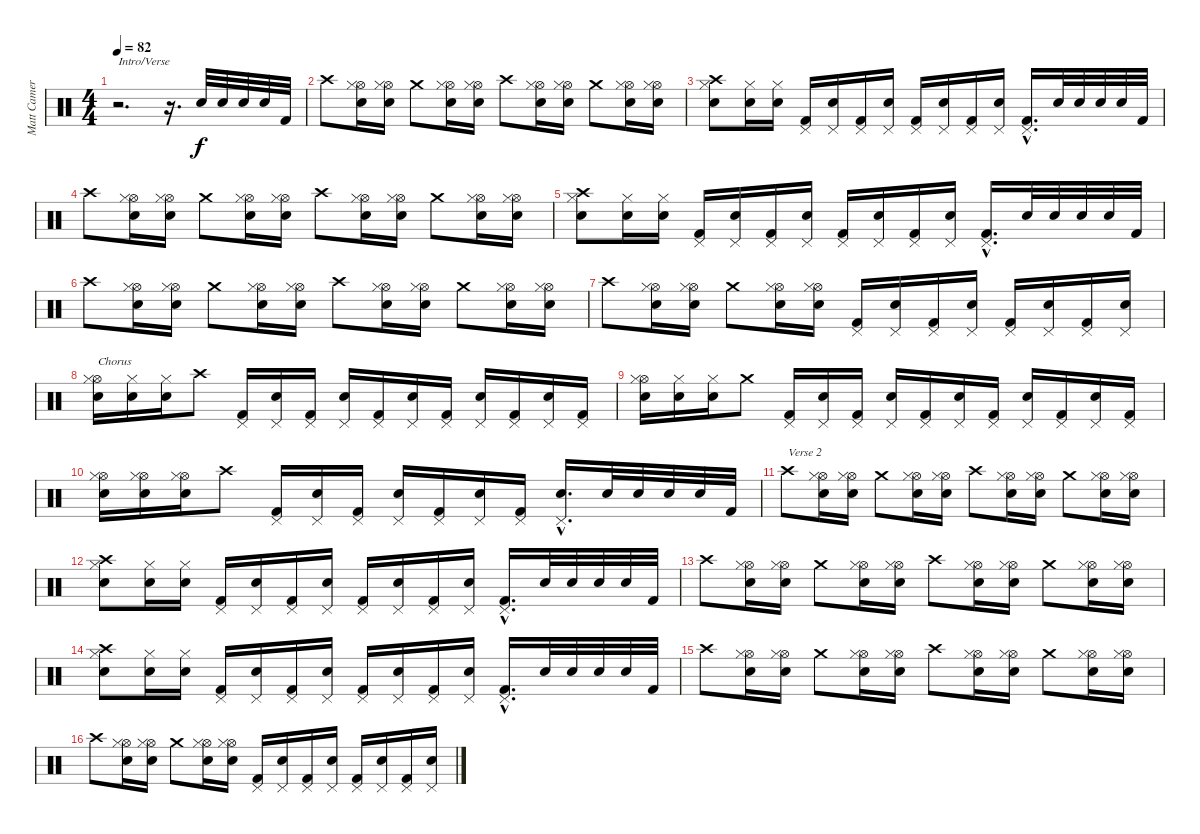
\track ("Matt Cameron" "Matt Camer") {instrument percussion}
\staff {score}
\articulation defaults
\ts (4 4)
\tempo 82
\clef neutral
\ks c
r.2{d txt "Intro/Verse" dy f} r.16{d} "Snare (hit) 2".32 "Snare (hit) 2".32 "Snare (hit) 2".32 "Snare (hit) 2".32 "Kick (hit) 2".32 |
"Crash high (hit)".8 ("Hi-Hat (open)" "Hi-Hat (closed)" "Snare (hit) 2").16 ("Hi-Hat (open)" "Hi-Hat (closed)" "Snare (hit) 2").16 "Crash medium (hit)".8 ("Hi-Hat (open)" "Hi-Hat (closed)" "Snare (hit) 2").16 ("Hi-Hat (open)" "Hi-Hat (closed)" "Snare (hit) 2").16 "Crash high (hit)".8 ("Hi-Hat (open)" "Hi-Hat (closed)" "Snare (hit) 2").16 ("Hi-Hat (open)" "Hi-Hat (closed)" "Snare (hit) 2").16 "Crash medium (hit)".8 ("Hi-Hat (open)" "Hi-Hat (closed)" "Snare (hit) 2").16 ("Hi-Hat (open)" "Hi-Hat (closed)" "Snare (hit) 2").16 |
("Crash high (hit)" "Hi-Hat (closed)" "Snare (hit) 2").8 ("Hi-Hat (closed)" "Snare (hit) 2").16 ("Hi-Hat (closed)" "Snare (hit) 2").16 ("Pedal Hi-Hat (hit)" "Kick (hit) 2").16 ("Pedal Hi-Hat (hit)" "Snare (hit) 2").16 ("Pedal Hi-Hat (hit)" "Kick (hit) 2").16 ("Pedal Hi-Hat (hit)" "Snare (hit) 2").16 ("Pedal Hi-Hat (hit)" "Kick (hit) 2").16 ("Pedal Hi-Hat (hit)" "Snare (hit) 2").16 ("Pedal Hi-Hat (hit)" "Kick (hit) 2").16 ("Pedal Hi-Hat (hit)" "Snare (hit) 2").16 ("Pedal Hi-Hat (hit)"{hac} "Kick (hit) 2"{hac}).16{d} "Snare (hit) 2".32 "Snare (hit) 2".32 "Snare (hit) 2".32 "Snare (hit) 2".32 "Kick (hit) 2".32 |
"Crash high (hit)".8 ("Hi-Hat (open)" "Hi-Hat (closed)" "Snare (hit) 2").16 ("Hi-Hat (open)" "Hi-Hat (closed)" "Snare (hit) 2").16 "Crash medium (hit)".8 ("Hi-Hat (open)" "Hi-Hat (closed)" "Snare (hit) 2").16 ("Hi-Hat (open)" "Hi-Hat (closed)" "Snare (hit) 2").16 "Crash high (hit)".8 ("Hi-Hat (open)" "Hi-Hat (closed)" "Snare (hit) 2").16 ("Hi-Hat (open)" "Hi-Hat (closed)" "Snare (hit) 2").16 "Crash medium (hit)".8 ("Hi-Hat (open)" "Hi-Hat (closed)" "Snare (hit) 2").16 ("Hi-Hat (open)" "Hi-Hat (closed)" "Snare (hit) 2").16 |
("Crash high (hit)" "Hi-Hat (closed)" "Snare (hit) 2").8 ("Hi-Hat (closed)" "Snare (hit) 2").16 ("Hi-Hat (closed)" "Snare (hit) 2").16 ("Pedal Hi-Hat (hit)" "Kick (hit) 2").16 ("Pedal Hi-Hat (hit)" "Snare (hit) 2").16 ("Pedal Hi-Hat (hit)" "Kick (hit) 2").16 ("Pedal Hi-Hat (hit)" "Snare (hit) 2").16 ("Pedal Hi-Hat (hit)" "Kick (hit) 2").16 ("Pedal Hi-Hat (hit)" "Snare (hit) 2").16 ("Pedal Hi-Hat (hit)" "Kick (hit) 2").16 ("Pedal Hi-Hat (hit)" "Snare (hit) 2").16 ("Pedal Hi-Hat (hit)"{hac} "Kick (hit) 2"{hac}).16{d} "Snare (hit) 2".32 "Snare (hit) 2".32 "Snare (hit) 2".32 "Snare (hit) 2".32 "Kick (hit) 2".32 |
"Crash high (hit)".8 ("Hi-Hat (open)" "Hi-Hat (closed)" "Snare (hit) 2").16 ("Hi-Hat (open)" "Hi-Hat (closed)" "Snare (hit) 2").16 "Crash medium (hit)".8 ("Hi-Hat (open)" "Hi-Hat (closed)" "Snare (hit) 2").16 ("Hi-Hat (open)" "Hi-Hat (closed)" "Snare (hit) 2").16 "Crash high (hit)".8 ("Hi-Hat (open)" "Hi-Hat (closed)" "Snare (hit) 2").16 ("Hi-Hat (open)" "Hi-Hat (closed)" "Snare (hit) 2").16 "Crash medium (hit)".8 ("Hi-Hat (open)" "Hi-Hat (closed)" "Snare (hit) 2").16 ("Hi-Hat (open)" "Hi-Hat (closed)" "Snare (hit) 2").16 |
"Crash high (hit)".8 ("Hi-Hat (open)" "Hi-Hat (closed)" "Snare (hit) 2").16 ("Hi-Hat (open)" "Hi-Hat (closed)" "Snare (hit) 2").16 "Crash medium (hit)".8 ("Hi-Hat (open)" "Hi-Hat (closed)" "Snare (hit) 2").16 ("Hi-Hat (open)" "Hi-Hat (closed)" "Snare (hit) 2").16 ("Pedal Hi-Hat (hit)" "Kick (hit) 2").16 ("Pedal Hi-Hat (hit)" "Snare (hit) 2").16 ("Pedal Hi-Hat (hit)" "Kick (hit) 2").16 ("Pedal Hi-Hat (hit)" "Snare (hit) 2").16 ("Pedal Hi-Hat (hit)" "Kick (hit) 2").16 ("Pedal Hi-Hat (hit)" "Snare (hit) 2").16 ("Pedal Hi-Hat (hit)" "Kick (hit) 2").16 ("Pedal Hi-Hat (hit)" "Snare (hit) 2").16 |
("Hi-Hat (open)" "Hi-Hat (closed)" "Snare (hit) 2").16{txt "Chorus"} ("Hi-Hat (closed)" "Snare (hit) 2").16 ("Hi-Hat (closed)" "Snare (hit) 2").16 "Crash high (hit)".8 ("Pedal Hi-Hat (hit)" "Kick (hit) 2").16 ("Pedal Hi-Hat (hit)" "Snare (hit) 2").16 ("Pedal Hi-Hat (hit)" "Kick (hit) 2").16 ("Pedal Hi-Hat (hit)" "Snare (hit) 2").16 ("Pedal Hi-Hat (hit)" "Kick (hit) 2").16 ("Pedal Hi-Hat (hit)" "Snare (hit) 2").16 ("Pedal Hi-Hat (hit)" "Kick (hit) 2").16 ("Pedal Hi-Hat (hit)" "Snare (hit) 2").16 ("Pedal Hi-Hat (hit)" "Kick (hit) 2").16 ("Pedal Hi-Hat (hit)" "Snare (hit) 2").16 ("Pedal Hi-Hat (hit)" "Kick (hit) 2").16 |
("Hi-Hat (open)" "Hi-Hat (closed)" "Snare (hit) 2").16 ("Hi-Hat (closed)" "Snare (hit) 2").16 ("Hi-Hat (closed)" "Snare (hit) 2").16 "Crash medium (hit)".8 ("Pedal Hi-Hat (hit)" "Kick (hit) 2").16 ("Pedal Hi-Hat (hit)" "Snare (hit) 2").16 ("Pedal Hi-Hat (hit)" "Kick (hit) 2").16 ("Pedal Hi-Hat (hit)" "Snare (hit) 2").16 ("Pedal Hi-Hat (hit)" "Kick (hit) 2").16 ("Pedal Hi-Hat (hit)" "Snare (hit) 2").16 ("Pedal Hi-Hat (hit)" "Kick (hit) 2").16 ("Pedal Hi-Hat (hit)" "Snare (hit) 2").16 ("Pedal Hi-Hat (hit)" "Kick (hit) 2").16 ("Pedal Hi-Hat (hit)" "Snare (hit) 2").16 ("Pedal Hi-Hat (hit)" "Kick (hit) 2").16 |
("Hi-Hat (open)" "Hi-Hat (closed)" "Snare (hit) 2").16 ("Hi-Hat (open)" "Hi-Hat (closed)" "Snare (hit) 2").16 ("Hi-Hat (open)" "Hi-Hat (closed)" "Snare (hit) 2").16 "Crash high (hit)".8 ("Pedal Hi-Hat (hit)" "Kick (hit) 2").16 ("Pedal Hi-Hat (hit)" "Snare (hit) 2").16 ("Pedal Hi-Hat (hit)" "Kick (hit) 2").16 ("Pedal Hi-Hat (hit)" "Snare (hit) 2").16 ("Pedal Hi-Hat (hit)" "Kick (hit) 2").16 ("Pedal Hi-Hat (hit)" "Snare (hit) 2").16 ("Pedal Hi-Hat (hit)" "Kick (hit) 2").16 ("Pedal Hi-Hat (hit)"{hac} "Snare (hit) 2"{hac}).16{d} "Snare (hit) 2".32 "Snare (hit) 2".32 "Snare (hit) 2".32 "Snare (hit) 2".32 "Kick (hit) 2".32 |
"Crash high (hit)".8{txt "Verse 2"} ("Hi-Hat (open)" "Hi-Hat (closed)" "Snare (hit) 2").16 ("Hi-Hat (open)" "Hi-Hat (closed)" "Snare (hit) 2").16 "Crash medium (hit)".8 ("Hi-Hat (open)" "Hi-Hat (closed)" "Snare (hit) 2").16 ("Hi-Hat (open)" "Hi-Hat (closed)" "Snare (hit) 2").16 "Crash high (hit)".8 ("Hi-Hat (open)" "Hi-Hat (closed)" "Snare (hit) 2").16 ("Hi-Hat (open)" "Hi-Hat (closed)" "Snare (hit) 2").16 "Crash medium (hit)".8 ("Hi-Hat (open)" "Hi-Hat (closed)" "Snare (hit) 2").16 ("Hi-Hat (open)" "Hi-Hat (closed)" "Snare (hit) 2").16 |
("Crash high (hit)" "Hi-Hat (closed)" "Snare (hit) 2").8 ("Hi-Hat (closed)" "Snare (hit) 2").16 ("Hi-Hat (closed)" "Snare (hit) 2").16 ("Pedal Hi-Hat (hit)" "Kick (hit) 2").16 ("Pedal Hi-Hat (hit)" "Snare (hit) 2").16 ("Pedal Hi-Hat (hit)" "Kick (hit) 2").16 ("Pedal Hi-Hat (hit)" "Snare (hit) 2").16 ("Pedal Hi-Hat (hit)" "Kick (hit) 2").16 ("Pedal Hi-Hat (hit)" "Snare (hit) 2").16 ("Pedal Hi-Hat (hit)" "Kick (hit) 2").16 ("Pedal Hi-Hat (hit)" "Snare (hit) 2").16 ("Pedal Hi-Hat (hit)"{hac} "Kick (hit) 2"{hac}).16{d} "Snare (hit) 2".32 "Snare (hit) 2".32 "Snare (hit) 2".32 "Snare (hit) 2".32 "Kick (hit) 2".32 |
"Crash high (hit)".8 ("Hi-Hat (open)" "Hi-Hat (closed)" "Snare (hit) 2").16 ("Hi-Hat (open)" "Hi-Hat (closed)" "Snare (hit) 2").16 "Crash medium (hit)".8 ("Hi-Hat (open)" "Hi-Hat (closed)" "Snare (hit) 2").16 ("Hi-Hat (open)" "Hi-Hat (closed)" "Snare (hit) 2").16 "Crash high (hit)".8 ("Hi-Hat (open)" "Hi-Hat (closed)" "Snare (hit) 2").16 ("Hi-Hat (open)" "Hi-Hat (closed)" "Snare (hit) 2").16 "Crash medium (hit)".8 ("Hi-Hat (open)" "Hi-Hat (closed)" "Snare (hit) 2").16 ("Hi-Hat (open)" "Hi-Hat (closed)" "Snare (hit) 2").16 |
("Crash high (hit)" "Hi-Hat (closed)" "Snare (hit) 2").8 ("Hi-Hat (closed)" "Snare (hit) 2").16 ("Hi-Hat (closed)" "Snare (hit) 2").16 ("Pedal Hi-Hat (hit)" "Kick (hit) 2").16 ("Pedal Hi-Hat (hit)" "Snare (hit) 2").16 ("Pedal Hi-Hat (hit)" "Kick (hit) 2").16 ("Pedal Hi-Hat (hit)" "Snare (hit) 2").16 ("Pedal Hi-Hat (hit)" "Kick (hit) 2").16 ("Pedal Hi-Hat (hit)" "Snare (hit) 2").16 ("Pedal Hi-Hat (hit)" "Kick (hit) 2").16 ("Pedal Hi-Hat (hit)" "Snare (hit) 2").16 ("Pedal Hi-Hat (hit)"{hac} "Kick (hit) 2"{hac}).16{d} "Snare (hit) 2".32 "Snare (hit) 2".32 "Snare (hit) 2".32 "Snare (hit) 2".32 "Kick (hit) 2".32 |
"Crash high (hit)".8 ("Hi-Hat (open)" "Hi-Hat (closed)" "Snare (hit) 2").16 ("Hi-Hat (open)" "Hi-Hat (closed)" "Snare (hit) 2").16 "Crash medium (hit)".8 ("Hi-Hat (open)" "Hi-Hat (closed)" "Snare (hit) 2").16 ("Hi-Hat (open)" "Hi-Hat (closed)" "Snare (hit) 2").16 "Crash high (hit)".8 ("Hi-Hat (open)" "Hi-Hat (closed)" "Snare (hit) 2").16 ("Hi-Hat (open)" "Hi-Hat (closed)" "Snare (hit) 2").16 "Crash medium (hit)".8 ("Hi-Hat (open)" "Hi-Hat (closed)" "Snare (hit) 2").16 ("Hi-Hat (open)" "Hi-Hat (closed)" "Snare (hit) 2").16 |
"Crash high (hit)".8 ("Hi-Hat (open)" "Hi-Hat (closed)" "Snare (hit) 2").16 ("Hi-Hat (open)" "Hi-Hat (closed)" "Snare (hit) 2").16 "Crash medium (hit)".8 ("Hi-Hat (open)" "Hi-Hat (closed)" "Snare (hit) 2").16 ("Hi-Hat (open)" "Hi-Hat (closed)" "Snare (hit) 2").16 ("Pedal Hi-Hat (hit)" "Kick (hit) 2").16 ("Pedal Hi-Hat (hit)" "Snare (hit) 2").16 ("Pedal Hi-Hat (hit)" "Kick (hit) 2").16 ("Pedal Hi-Hat (hit)" "Snare (hit) 2").16 ("Pedal Hi-Hat (hit)" "Kick (hit) 2").16 ("Pedal Hi-Hat (hit)" "Snare (hit) 2").16 ("Pedal Hi-Hat (hit)" "Kick (hit) 2").16 ("Pedal Hi-Hat (hit)" "Snare (hit) 2").16
